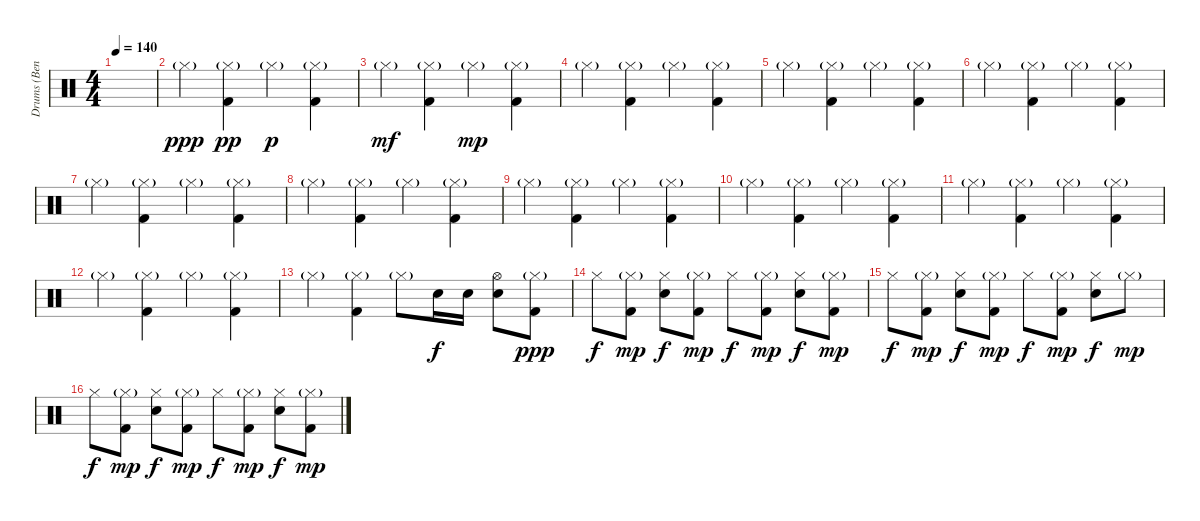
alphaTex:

\track ("Drums (Bengerg)" "Drums (Ben") {instrument percussion}
\staff {score}
\articulation defaults
\ts (4 4)
\tempo 140
\clef neutral
\ks c
|
"Hi-Hat (closed)"{g}.4{dy ppp volume 16} ("Hi-Hat (closed)"{g} "Kick (hit) 2").4{dy pp} "Hi-Hat (closed)"{g}.4{dy p} ("Hi-Hat (closed)"{g} "Kick (hit) 2").4 |
"Hi-Hat (closed)"{g}.4{dy mf} ("Hi-Hat (closed)"{g} "Kick (hit) 2").4 "Hi-Hat (closed)"{g}.4{dy mp} ("Hi-Hat (closed)"{g} "Kick (hit) 2").4 |
"Hi-Hat (closed)"{g}.4 ("Hi-Hat (closed)"{g} "Kick (hit) 2").4 "Hi-Hat (closed)"{g}.4 ("Hi-Hat (closed)"{g} "Kick (hit) 2").4 |
"Hi-Hat (closed)"{g}.4 ("Hi-Hat (closed)"{g} "Kick (hit) 2").4 "Hi-Hat (closed)"{g}.4 ("Hi-Hat (closed)"{g} "Kick (hit) 2").4 |
"Hi-Hat (closed)"{g}.4 ("Hi-Hat (closed)"{g} "Kick (hit) 2").4 "Hi-Hat (closed)"{g}.4 ("Hi-Hat (closed)"{g} "Kick (hit) 2").4 |
"Hi-Hat (closed)"{g}.4 ("Hi-Hat (closed)"{g} "Kick (hit) 2").4 "Hi-Hat (closed)"{g}.4 ("Hi-Hat (closed)"{g} "Kick (hit) 2").4 |
"Hi-Hat (closed)"{g}.4 ("Hi-Hat (closed)"{g} "Kick (hit) 2").4 "Hi-Hat (closed)"{g}.4 ("Hi-Hat (closed)"{g} "Kick (hit) 2").4 |
"Hi-Hat (closed)"{g}.4 ("Hi-Hat (closed)"{g} "Kick (hit) 2").4 "Hi-Hat (closed)"{g}.4 ("Hi-Hat (closed)"{g} "Kick (hit) 2").4 |
"Hi-Hat (closed)"{g}.4 ("Hi-Hat (closed)"{g} "Kick (hit) 2").4 "Hi-Hat (closed)"{g}.4 ("Hi-Hat (closed)"{g} "Kick (hit) 2").4 |
"Hi-Hat (closed)"{g}.4 ("Hi-Hat (closed)"{g} "Kick (hit) 2").4 "Hi-Hat (closed)"{g}.4 ("Hi-Hat (closed)"{g} "Kick (hit) 2").4 |
"Hi-Hat (closed)"{g}.4 ("Hi-Hat (closed)"{g} "Kick (hit) 2").4 "Hi-Hat (closed)"{g}.4 ("Hi-Hat (closed)"{g} "Kick (hit) 2").4 |
"Hi-Hat (closed)"{g}.4 ("Hi-Hat (closed)"{g} "Kick (hit) 2").4 "Hi-Hat (closed)"{g}.8 "Electric Snare (hit)".16{dy f} "Electric Snare (hit)".16 ("Hi-Hat (open)" "Electric Snare (hit)").8 ("Hi-Hat (closed)"{g} "Kick (hit) 2").8{dy ppp} |
"Hi-Hat (closed)".8{dy f} ("Hi-Hat (closed)"{g} "Kick (hit) 2").8{dy mp} ("Hi-Hat (closed)" "Electric Snare (hit)").8{dy f} ("Hi-Hat (closed)"{g} "Kick (hit) 2").8{dy mp} "Hi-Hat (closed)".8{dy f} ("Hi-Hat (closed)"{g} "Kick (hit) 2").8{dy mp} ("Hi-Hat (closed)" "Electric Snare (hit)").8{dy f} ("Hi-Hat (closed)"{g} "Kick (hit) 2").8{dy mp} |
"Hi-Hat (closed)".8{dy f} ("Hi-Hat (closed)"{g} "Kick (hit) 2").8{dy mp} ("Hi-Hat (closed)" "Electric Snare (hit)").8{dy f} ("Hi-Hat (closed)"{g} "Kick (hit) 2").8{dy mp} "Hi-Hat (closed)".8{dy f} ("Hi-Hat (closed)"{g} "Kick (hit) 2").8{dy mp} ("Hi-Hat (closed)" "Electric Snare (hit)").8{dy f} "Hi-Hat (closed)"{g}.8{dy mp} |
"Hi-Hat (closed)".8{dy f} ("Hi-Hat (closed)"{g} "Kick (hit) 2").8{dy mp} ("Hi-Hat (closed)" "Electric Snare (hit)").8{dy f} ("Hi-Hat (closed)"{g} "Kick (hit) 2").8{dy mp} "Hi-Hat (closed)".8{dy f} ("Hi-Hat (closed)"{g} "Kick (hit) 2").8{dy mp} ("Hi-Hat (closed)" "Electric Snare (hit)").8{dy f} ("Hi-Hat (closed)"{g} "Kick (hit) 2").8{dy mp}
